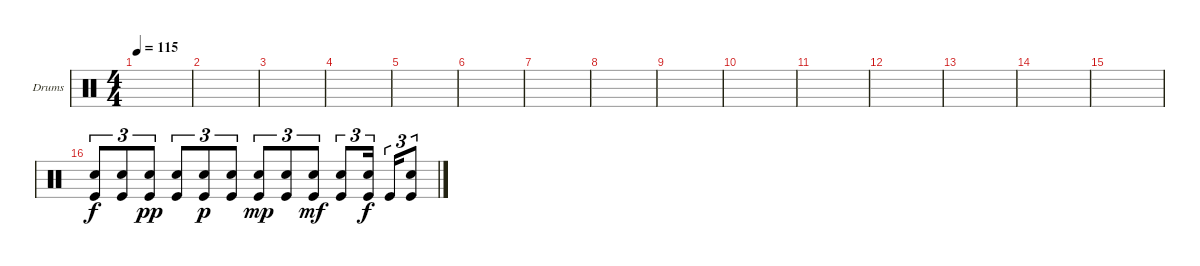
\bracketExtendMode groupsimilarinstruments
\firstSystemTrackNameOrientation horizontal
\otherSystemsTrackNameOrientation horizontal
\track ("Kaleb - Drums" "Drums") {instrument percussion}
\staff {score}
\articulation defaults
\ts (4 4)
\tempo 115
\clef neutral
\ks c
|
|
|
|
|
|
|
|
|
|
|
|
|
|
|
("Kick (hit)" "Snare (hit) 2").8{tu (3 2)} ("Kick (hit)" "Snare (hit) 2").8{tu (3 2)} ("Kick (hit)" "Snare (hit) 2").8{tu (3 2) dy pp} ("Kick (hit)" "Snare (hit) 2").8{tu (3 2)} ("Kick (hit)" "Snare (hit) 2").8{tu (3 2) dy p} ("Kick (hit)" "Snare (hit) 2").8{tu (3 2)} ("Kick (hit)" "Snare (hit) 2").8{tu (3 2) dy mp} ("Kick (hit)" "Snare (hit) 2").8{tu (3 2)} ("Kick (hit)" "Snare (hit) 2").8{tu (3 2) dy mf} ("Kick (hit)" "Snare (hit) 2").8{tu (3 2)} ("Kick (hit)" "Snare (hit) 2").16{tu (3 2) dy f} "Kick (hit)".16{tu (3 2)} ("Kick (hit)" "Snare (hit) 2").8{tu (3 2)}
